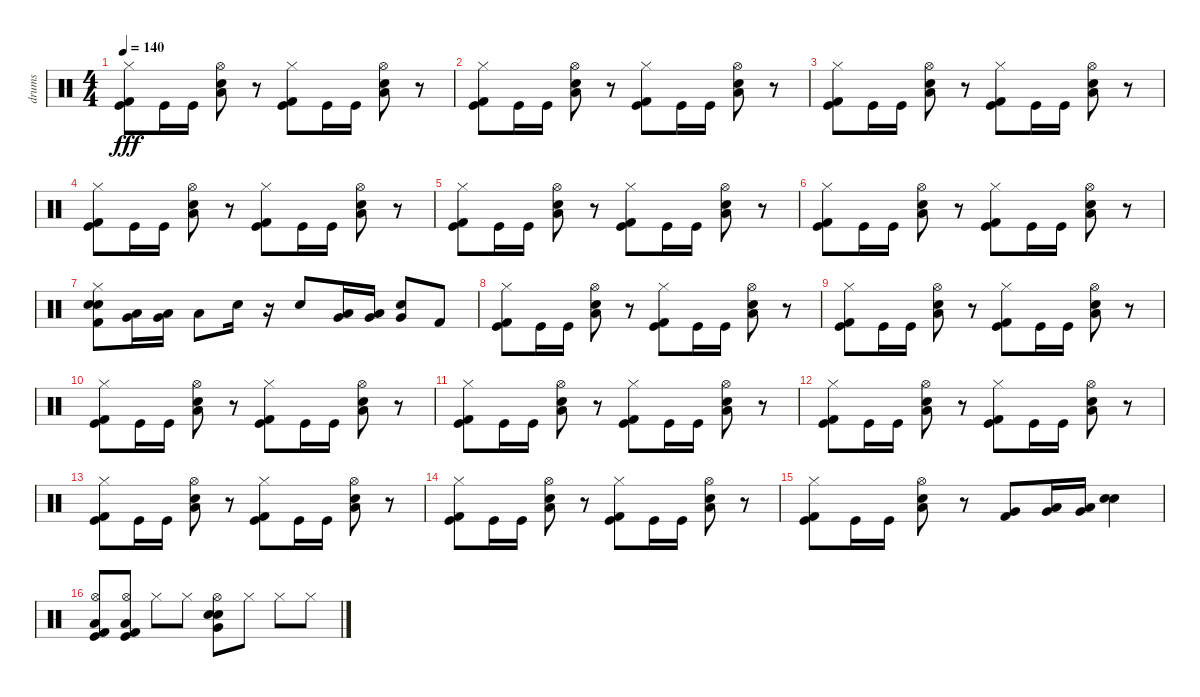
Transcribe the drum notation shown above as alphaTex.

\track ("drums" "drums") {instrument percussion}
\staff {score}
\articulation defaults
\ts (4 4)
\tempo 140
\clef neutral
\ks c
("Hi-Hat (closed)" "Kick (hit)" "Kick (hit) 2").8{dy fff} "Kick (hit)".16 "Kick (hit)".16 ("Hi-Hat (open)" "Low Tom (hit)" "Snare (hit) 2").8 r.8 ("Hi-Hat (closed)" "Kick (hit)" "Kick (hit) 2").8 "Kick (hit)".16 "Kick (hit)".16 ("Hi-Hat (open)" "Low Tom (hit)" "Snare (hit) 2").8 r.8 |
("Hi-Hat (closed)" "Kick (hit)" "Kick (hit) 2").8 "Kick (hit)".16 "Kick (hit)".16 ("Hi-Hat (open)" "Low Tom (hit)" "Snare (hit) 2").8 r.8 ("Hi-Hat (closed)" "Kick (hit)" "Kick (hit) 2").8 "Kick (hit)".16 "Kick (hit)".16 ("Hi-Hat (open)" "Low Tom (hit)" "Snare (hit) 2").8 r.8 |
("Hi-Hat (closed)" "Kick (hit)" "Kick (hit) 2").8 "Kick (hit)".16 "Kick (hit)".16 ("Hi-Hat (open)" "Low Tom (hit)" "Snare (hit) 2").8 r.8 ("Hi-Hat (closed)" "Kick (hit)" "Kick (hit) 2").8 "Kick (hit)".16 "Kick (hit)".16 ("Hi-Hat (open)" "Low Tom (hit)" "Snare (hit) 2").8 r.8 |
("Hi-Hat (closed)" "Kick (hit)" "Kick (hit) 2").8 "Kick (hit)".16 "Kick (hit)".16 ("Hi-Hat (open)" "Low Tom (hit)" "Snare (hit) 2").8 r.8 ("Hi-Hat (closed)" "Kick (hit)" "Kick (hit) 2").8 "Kick (hit)".16 "Kick (hit)".16 ("Hi-Hat (open)" "Low Tom (hit)" "Snare (hit) 2").8 r.8 |
("Hi-Hat (closed)" "Kick (hit)" "Kick (hit) 2").8 "Kick (hit)".16 "Kick (hit)".16 ("Hi-Hat (open)" "Low Tom (hit)" "Snare (hit) 2").8 r.8 ("Hi-Hat (closed)" "Kick (hit)" "Kick (hit) 2").8 "Kick (hit)".16 "Kick (hit)".16 ("Hi-Hat (open)" "Low Tom (hit)" "Snare (hit) 2").8 r.8 |
("Hi-Hat (closed)" "Kick (hit)" "Kick (hit) 2").8 "Kick (hit)".16 "Kick (hit)".16 ("Hi-Hat (open)" "Low Tom (hit)" "Snare (hit) 2").8 r.8 ("Hi-Hat (closed)" "Kick (hit)" "Kick (hit) 2").8 "Kick (hit)".16 "Kick (hit)".16 ("Hi-Hat (open)" "Low Tom (hit)" "Snare (hit) 2").8 r.8 |
("Hi-Hat (closed)" "Electric Snare (hit)" "Snare (hit) 2" "Kick (hit) 2").8 ("Low Tom (hit)" "Very Low Tom (hit)").16 ("Very Low Tom (hit)" "Low Floor Tom (hit)").16 "Low Tom (hit)".8 "Snare (hit) 2".16 r.16 "Snare (hit) 2".8 ("Low Tom (hit)" "Very Low Tom (hit)").16 ("Very Low Tom (hit)" "Low Floor Tom (hit)").16 ("Snare (hit) 2" "Very Low Tom (hit)").8 "Kick (hit) 2".8 |
("Hi-Hat (closed)" "Kick (hit)" "Kick (hit) 2").8 "Kick (hit)".16 "Kick (hit)".16 ("Hi-Hat (open)" "Low Tom (hit)" "Snare (hit) 2").8 r.8 ("Hi-Hat (closed)" "Kick (hit)" "Kick (hit) 2").8 "Kick (hit)".16 "Kick (hit)".16 ("Hi-Hat (open)" "Low Tom (hit)" "Snare (hit) 2").8 r.8 |
("Hi-Hat (closed)" "Kick (hit)" "Kick (hit) 2").8 "Kick (hit)".16 "Kick (hit)".16 ("Hi-Hat (open)" "Low Tom (hit)" "Snare (hit) 2").8 r.8 ("Hi-Hat (closed)" "Kick (hit)" "Kick (hit) 2").8 "Kick (hit)".16 "Kick (hit)".16 ("Hi-Hat (open)" "Low Tom (hit)" "Snare (hit) 2").8 r.8 |
("Hi-Hat (closed)" "Kick (hit)" "Kick (hit) 2").8 "Kick (hit)".16 "Kick (hit)".16 ("Hi-Hat (open)" "Low Tom (hit)" "Snare (hit) 2").8 r.8 ("Hi-Hat (closed)" "Kick (hit)" "Kick (hit) 2").8 "Kick (hit)".16 "Kick (hit)".16 ("Hi-Hat (open)" "Low Tom (hit)" "Snare (hit) 2").8 r.8 |
("Hi-Hat (closed)" "Kick (hit)" "Kick (hit) 2").8 "Kick (hit)".16 "Kick (hit)".16 ("Hi-Hat (open)" "Low Tom (hit)" "Snare (hit) 2").8 r.8 ("Hi-Hat (closed)" "Kick (hit)" "Kick (hit) 2").8 "Kick (hit)".16 "Kick (hit)".16 ("Hi-Hat (open)" "Low Tom (hit)" "Snare (hit) 2").8 r.8 |
("Hi-Hat (closed)" "Kick (hit)" "Kick (hit) 2").8 "Kick (hit)".16 "Kick (hit)".16 ("Hi-Hat (open)" "Low Tom (hit)" "Snare (hit) 2").8 r.8 ("Hi-Hat (closed)" "Kick (hit)" "Kick (hit) 2").8 "Kick (hit)".16 "Kick (hit)".16 ("Hi-Hat (open)" "Low Tom (hit)" "Snare (hit) 2").8 r.8 |
("Hi-Hat (closed)" "Kick (hit)" "Kick (hit) 2").8 "Kick (hit)".16 "Kick (hit)".16 ("Hi-Hat (open)" "Low Tom (hit)" "Snare (hit) 2").8 r.8 ("Hi-Hat (closed)" "Kick (hit)" "Kick (hit) 2").8 "Kick (hit)".16 "Kick (hit)".16 ("Hi-Hat (open)" "Low Tom (hit)" "Snare (hit) 2").8 r.8 |
("Hi-Hat (closed)" "Kick (hit)" "Kick (hit) 2").8 "Kick (hit)".16 "Kick (hit)".16 ("Hi-Hat (open)" "Low Tom (hit)" "Snare (hit) 2").8 r.8 ("Hi-Hat (closed)" "Kick (hit)" "Kick (hit) 2").8 "Kick (hit)".16 "Kick (hit)".16 ("Hi-Hat (open)" "Low Tom (hit)" "Snare (hit) 2").8 r.8 |
("Hi-Hat (closed)" "Kick (hit) 2" "Kick (hit)").8 "Kick (hit)".16 "Kick (hit)".16 ("Hi-Hat (open)" "Low Tom (hit)" "Snare (hit) 2").8 r.8 ("Very Low Tom (hit)" "Kick (hit) 2").8 ("Low Floor Tom (hit)" "Very Low Tom (hit)").16 ("Very Low Tom (hit)" "Low Tom (hit)").16 ("Electric Snare (hit)" "Snare (hit) 2").4 |
("Hi-Hat (open)" "Low Floor Tom (hit)" "Kick (hit)" "Kick (hit) 2").8 ("Hi-Hat (open)" "Low Floor Tom (hit)" "Kick (hit)" "Kick (hit) 2").8 "Hi-Hat (closed)".8 "Hi-Hat (closed)".8 ("Hi-Hat (open)" "Very Low Tom (hit)" "Snare (hit) 2" "Electric Snare (hit)").8 "Hi-Hat (closed)".8 "Hi-Hat (closed)".8 "Hi-Hat (closed)".8
